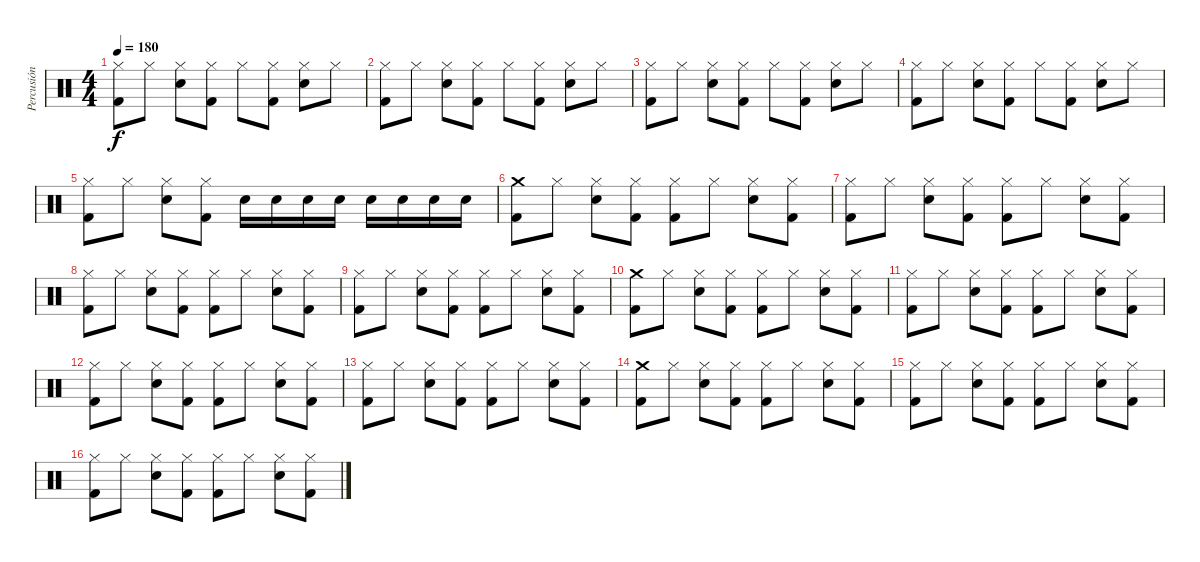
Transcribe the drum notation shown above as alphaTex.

\track ("Percusión" "Percusión") {instrument percussion}
\staff {score}
\articulation defaults
\ts (4 4)
\tempo 180
\clef neutral
\ks c
("Hi-Hat (closed)" "Kick (hit) 2").8{dy f} "Hi-Hat (closed)".8 ("Hi-Hat (closed)" "Electric Snare (hit)").8 ("Hi-Hat (closed)" "Kick (hit) 2").8 "Hi-Hat (closed)".8 ("Hi-Hat (closed)" "Kick (hit) 2").8 ("Hi-Hat (closed)" "Electric Snare (hit)").8 "Hi-Hat (closed)".8 |
("Hi-Hat (closed)" "Kick (hit) 2").8 "Hi-Hat (closed)".8 ("Hi-Hat (closed)" "Electric Snare (hit)").8 ("Hi-Hat (closed)" "Kick (hit) 2").8 "Hi-Hat (closed)".8 ("Hi-Hat (closed)" "Kick (hit) 2").8 ("Hi-Hat (closed)" "Electric Snare (hit)").8 "Hi-Hat (closed)".8 |
("Hi-Hat (closed)" "Kick (hit) 2").8 "Hi-Hat (closed)".8 ("Hi-Hat (closed)" "Electric Snare (hit)").8 ("Hi-Hat (closed)" "Kick (hit) 2").8 "Hi-Hat (closed)".8 ("Hi-Hat (closed)" "Kick (hit) 2").8 ("Hi-Hat (closed)" "Electric Snare (hit)").8 "Hi-Hat (closed)".8 |
("Hi-Hat (closed)" "Kick (hit) 2").8 "Hi-Hat (closed)".8 ("Hi-Hat (closed)" "Electric Snare (hit)").8 ("Hi-Hat (closed)" "Kick (hit) 2").8 "Hi-Hat (closed)".8 ("Hi-Hat (closed)" "Kick (hit) 2").8 ("Hi-Hat (closed)" "Electric Snare (hit)").8 "Hi-Hat (closed)".8 |
("Hi-Hat (closed)" "Kick (hit) 2").8 "Hi-Hat (closed)".8 ("Hi-Hat (closed)" "Electric Snare (hit)").8 ("Hi-Hat (closed)" "Kick (hit) 2").8 "Electric Snare (hit)".16 "Electric Snare (hit)".16 "Electric Snare (hit)".16 "Electric Snare (hit)".16 "Electric Snare (hit)".16 "Electric Snare (hit)".16 "Electric Snare (hit)".16 "Electric Snare (hit)".16 |
("Crash medium (hit)" "Kick (hit) 2").8 "Hi-Hat (closed)".8 ("Hi-Hat (closed)" "Electric Snare (hit)").8 ("Hi-Hat (closed)" "Kick (hit) 2").8 ("Hi-Hat (closed)" "Kick (hit) 2").8 "Hi-Hat (closed)".8 ("Hi-Hat (closed)" "Electric Snare (hit)").8 ("Hi-Hat (closed)" "Kick (hit) 2").8 |
("Hi-Hat (closed)" "Kick (hit) 2").8 "Hi-Hat (closed)".8 ("Hi-Hat (closed)" "Electric Snare (hit)").8 ("Hi-Hat (closed)" "Kick (hit) 2").8 ("Hi-Hat (closed)" "Kick (hit) 2").8 "Hi-Hat (closed)".8 ("Hi-Hat (closed)" "Electric Snare (hit)").8 ("Hi-Hat (closed)" "Kick (hit) 2").8 |
("Hi-Hat (closed)" "Kick (hit) 2").8 "Hi-Hat (closed)".8 ("Hi-Hat (closed)" "Electric Snare (hit)").8 ("Hi-Hat (closed)" "Kick (hit) 2").8 ("Hi-Hat (closed)" "Kick (hit) 2").8 "Hi-Hat (closed)".8 ("Hi-Hat (closed)" "Electric Snare (hit)").8 ("Hi-Hat (closed)" "Kick (hit) 2").8 |
("Hi-Hat (closed)" "Kick (hit) 2").8 "Hi-Hat (closed)".8 ("Hi-Hat (closed)" "Electric Snare (hit)").8 ("Hi-Hat (closed)" "Kick (hit) 2").8 ("Hi-Hat (closed)" "Kick (hit) 2").8 "Hi-Hat (closed)".8 ("Hi-Hat (closed)" "Electric Snare (hit)").8 ("Hi-Hat (closed)" "Kick (hit) 2").8 |
("Crash medium (hit)" "Kick (hit) 2").8 "Hi-Hat (closed)".8 ("Hi-Hat (closed)" "Electric Snare (hit)").8 ("Hi-Hat (closed)" "Kick (hit) 2").8 ("Hi-Hat (closed)" "Kick (hit) 2").8 "Hi-Hat (closed)".8 ("Hi-Hat (closed)" "Electric Snare (hit)").8 ("Hi-Hat (closed)" "Kick (hit) 2").8 |
("Hi-Hat (closed)" "Kick (hit) 2").8 "Hi-Hat (closed)".8 ("Hi-Hat (closed)" "Electric Snare (hit)").8 ("Hi-Hat (closed)" "Kick (hit) 2").8 ("Hi-Hat (closed)" "Kick (hit) 2").8 "Hi-Hat (closed)".8 ("Hi-Hat (closed)" "Electric Snare (hit)").8 ("Hi-Hat (closed)" "Kick (hit) 2").8 |
("Hi-Hat (closed)" "Kick (hit) 2").8 "Hi-Hat (closed)".8 ("Hi-Hat (closed)" "Electric Snare (hit)").8 ("Hi-Hat (closed)" "Kick (hit) 2").8 ("Hi-Hat (closed)" "Kick (hit) 2").8 "Hi-Hat (closed)".8 ("Hi-Hat (closed)" "Electric Snare (hit)").8 ("Hi-Hat (closed)" "Kick (hit) 2").8 |
("Hi-Hat (closed)" "Kick (hit) 2").8 "Hi-Hat (closed)".8 ("Hi-Hat (closed)" "Electric Snare (hit)").8 ("Hi-Hat (closed)" "Kick (hit) 2").8 ("Hi-Hat (closed)" "Kick (hit) 2").8 "Hi-Hat (closed)".8 ("Hi-Hat (closed)" "Electric Snare (hit)").8 ("Hi-Hat (closed)" "Kick (hit) 2").8 |
("Crash medium (hit)" "Kick (hit) 2").8 "Hi-Hat (closed)".8 ("Hi-Hat (closed)" "Electric Snare (hit)").8 ("Hi-Hat (closed)" "Kick (hit) 2").8 ("Hi-Hat (closed)" "Kick (hit) 2").8 "Hi-Hat (closed)".8 ("Hi-Hat (closed)" "Electric Snare (hit)").8 ("Hi-Hat (closed)" "Kick (hit) 2").8 |
("Hi-Hat (closed)" "Kick (hit) 2").8 "Hi-Hat (closed)".8 ("Hi-Hat (closed)" "Electric Snare (hit)").8 ("Hi-Hat (closed)" "Kick (hit) 2").8 ("Hi-Hat (closed)" "Kick (hit) 2").8 "Hi-Hat (closed)".8 ("Hi-Hat (closed)" "Electric Snare (hit)").8 ("Hi-Hat (closed)" "Kick (hit) 2").8 |
("Hi-Hat (closed)" "Kick (hit) 2").8 "Hi-Hat (closed)".8 ("Hi-Hat (closed)" "Electric Snare (hit)").8 ("Hi-Hat (closed)" "Kick (hit) 2").8 ("Hi-Hat (closed)" "Kick (hit) 2").8 "Hi-Hat (closed)".8 ("Hi-Hat (closed)" "Electric Snare (hit)").8 ("Hi-Hat (closed)" "Kick (hit) 2").8
